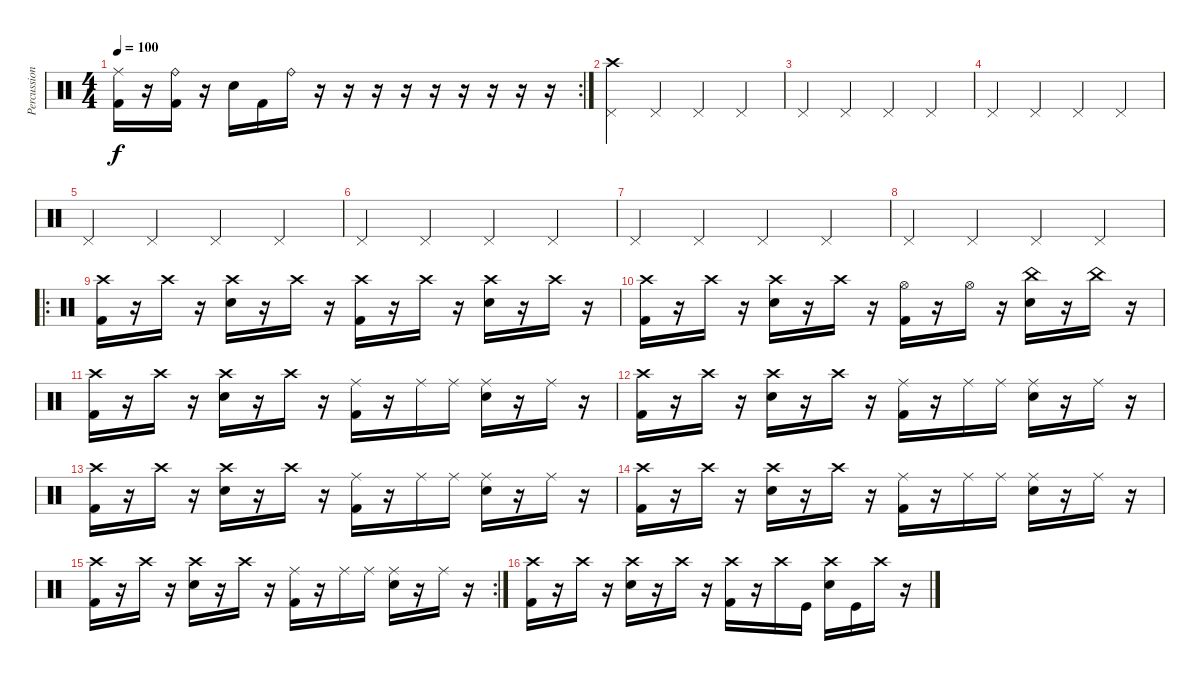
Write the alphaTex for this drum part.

\track ("Percussion" "Percussion") {instrument percussion}
\staff {score}
\articulation defaults
\rc 2
\ts (4 4)
\tempo 100
\clef neutral
\ks c
("Kick (hit) 2" "Ride (middle)").16{dy f} r.16 ("Kick (hit) 2" "Ride (bell)").16 r.16 "Electric Snare (hit)".16 "Kick (hit) 2".16 "Ride (bell)".16 r.16 r.16 r.16 r.16 r.16 r.16 r.16 r.16 r.16 |
("Crash high (hit)" "Pedal Hi-Hat (hit)").4 "Pedal Hi-Hat (hit)".4 "Pedal Hi-Hat (hit)".4 "Pedal Hi-Hat (hit)".4 |
"Pedal Hi-Hat (hit)".4 "Pedal Hi-Hat (hit)".4 "Pedal Hi-Hat (hit)".4 "Pedal Hi-Hat (hit)".4 |
"Pedal Hi-Hat (hit)".4 "Pedal Hi-Hat (hit)".4 "Pedal Hi-Hat (hit)".4 "Pedal Hi-Hat (hit)".4 |
"Pedal Hi-Hat (hit)".4 "Pedal Hi-Hat (hit)".4 "Pedal Hi-Hat (hit)".4 "Pedal Hi-Hat (hit)".4 |
"Pedal Hi-Hat (hit)".4 "Pedal Hi-Hat (hit)".4 "Pedal Hi-Hat (hit)".4 "Pedal Hi-Hat (hit)".4 |
"Pedal Hi-Hat (hit)".4 "Pedal Hi-Hat (hit)".4 "Pedal Hi-Hat (hit)".4 "Pedal Hi-Hat (hit)".4 |
"Pedal Hi-Hat (hit)".4 "Pedal Hi-Hat (hit)".4 "Pedal Hi-Hat (hit)".4 "Pedal Hi-Hat (hit)".4 |
\ro
("Kick (hit) 2" "Crash high (hit)").16 r.16 "Crash high (hit)".16 r.16 ("Electric Snare (hit)" "Crash high (hit)").16 r.16 "Crash high (hit)".16 r.16 ("Kick (hit) 2" "Crash high (hit)").16 r.16 "Crash high (hit)".16 r.16 ("Electric Snare (hit)" "Crash high (hit)").16 r.16 "Crash high (hit)".16 r.16 |
("Kick (hit) 2" "Crash high (hit)").16 r.16 "Crash high (hit)".16 r.16 ("Electric Snare (hit)" "Crash high (hit)").16 r.16 "Crash high (hit)".16 r.16 ("Kick (hit) 2" "Hi-Hat (open)").16 r.16 "Hi-Hat (open)".16 r.16 ("Electric Snare (hit)" "China (hit)").16 r.16 "China (hit)".16 r.16 |
("Kick (hit) 2" "Crash high (hit)").16 r.16 "Crash high (hit)".16 r.16 ("Electric Snare (hit)" "Crash high (hit)").16 r.16 "Crash high (hit)".16 r.16 ("Kick (hit) 2" "Ride (middle)").16 r.16 "Ride (middle)".16 "Ride (middle)".16 ("Electric Snare (hit)" "Ride (middle)").16 r.16 "Ride (middle)".16 r.16 |
("Kick (hit) 2" "Crash high (hit)").16 r.16 "Crash high (hit)".16 r.16 ("Electric Snare (hit)" "Crash high (hit)").16 r.16 "Crash high (hit)".16 r.16 ("Kick (hit) 2" "Ride (middle)").16 r.16 "Ride (middle)".16 "Ride (middle)".16 ("Electric Snare (hit)" "Ride (middle)").16 r.16 "Ride (middle)".16 r.16 |
("Kick (hit) 2" "Crash high (hit)").16 r.16 "Crash high (hit)".16 r.16 ("Electric Snare (hit)" "Crash high (hit)").16 r.16 "Crash high (hit)".16 r.16 ("Kick (hit) 2" "Ride (middle)").16 r.16 "Ride (middle)".16 "Ride (middle)".16 ("Electric Snare (hit)" "Ride (middle)").16 r.16 "Ride (middle)".16 r.16 |
("Kick (hit) 2" "Crash high (hit)").16 r.16 "Crash high (hit)".16 r.16 ("Electric Snare (hit)" "Crash high (hit)").16 r.16 "Crash high (hit)".16 r.16 ("Kick (hit) 2" "Ride (middle)").16 r.16 "Ride (middle)".16 "Ride (middle)".16 ("Electric Snare (hit)" "Ride (middle)").16 r.16 "Ride (middle)".16 r.16 |
\rc 2
("Kick (hit) 2" "Crash high (hit)").16 r.16 "Crash high (hit)".16 r.16 ("Electric Snare (hit)" "Crash high (hit)").16 r.16 "Crash high (hit)".16 r.16 ("Kick (hit) 2" "Ride (middle)").16 r.16 "Ride (middle)".16 "Ride (middle)".16 ("Electric Snare (hit)" "Ride (middle)").16 r.16 "Ride (middle)".16 r.16 |
("Kick (hit) 2" "Crash high (hit)").16 r.16 "Crash high (hit)".16 r.16 ("Electric Snare (hit)" "Crash high (hit)").16 r.16 "Crash high (hit)".16 r.16 ("Kick (hit) 2" "Crash high (hit)").16 r.16 "Crash high (hit)".16 "Kick (hit)".16 ("Electric Snare (hit)" "Crash high (hit)").16 "Kick (hit)".16 "Crash high (hit)".16 r.16
